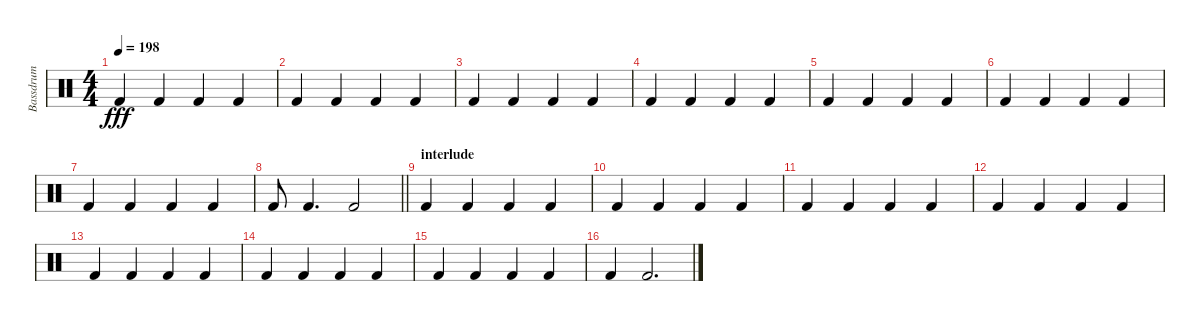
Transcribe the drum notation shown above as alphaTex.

\track ("Bassdrum" "Bassdrum") {instrument percussion}
\staff {score}
\articulation defaults
\ts (4 4)
\tempo 198
\clef neutral
\ks c "Kick (hit) 2".4{dy fff} "Kick (hit) 2".4 "Kick (hit) 2".4 "Kick (hit) 2".4
|
"Kick (hit) 2".4 "Kick (hit) 2".4 "Kick (hit) 2".4 "Kick (hit) 2".4 |
"Kick (hit) 2".4 "Kick (hit) 2".4 "Kick (hit) 2".4 "Kick (hit) 2".4 |
"Kick (hit) 2".4 "Kick (hit) 2".4 "Kick (hit) 2".4 "Kick (hit) 2".4 |
"Kick (hit) 2".4 "Kick (hit) 2".4 "Kick (hit) 2".4 "Kick (hit) 2".4 |
"Kick (hit) 2".4 "Kick (hit) 2".4 "Kick (hit) 2".4 "Kick (hit) 2".4 |
"Kick (hit) 2".4 "Kick (hit) 2".4 "Kick (hit) 2".4 "Kick (hit) 2".4 |
\barLineRight lightlight "Kick (hit) 2".8 "Kick (hit) 2".4{d} "Kick (hit) 2".2
|
\section ("" "interlude")
"Kick (hit) 2".4 "Kick (hit) 2".4 "Kick (hit) 2".4 "Kick (hit) 2".4 |
"Kick (hit) 2".4 "Kick (hit) 2".4 "Kick (hit) 2".4 "Kick (hit) 2".4 |
"Kick (hit) 2".4 "Kick (hit) 2".4 "Kick (hit) 2".4 "Kick (hit) 2".4 |
"Kick (hit) 2".4 "Kick (hit) 2".4 "Kick (hit) 2".4 "Kick (hit) 2".4 |
"Kick (hit) 2".4 "Kick (hit) 2".4 "Kick (hit) 2".4 "Kick (hit) 2".4 |
"Kick (hit) 2".4 "Kick (hit) 2".4 "Kick (hit) 2".4 "Kick (hit) 2".4 |
"Kick (hit) 2".4 "Kick (hit) 2".4 "Kick (hit) 2".4 "Kick (hit) 2".4 |
"Kick (hit) 2".4 "Kick (hit) 2".2{d}
